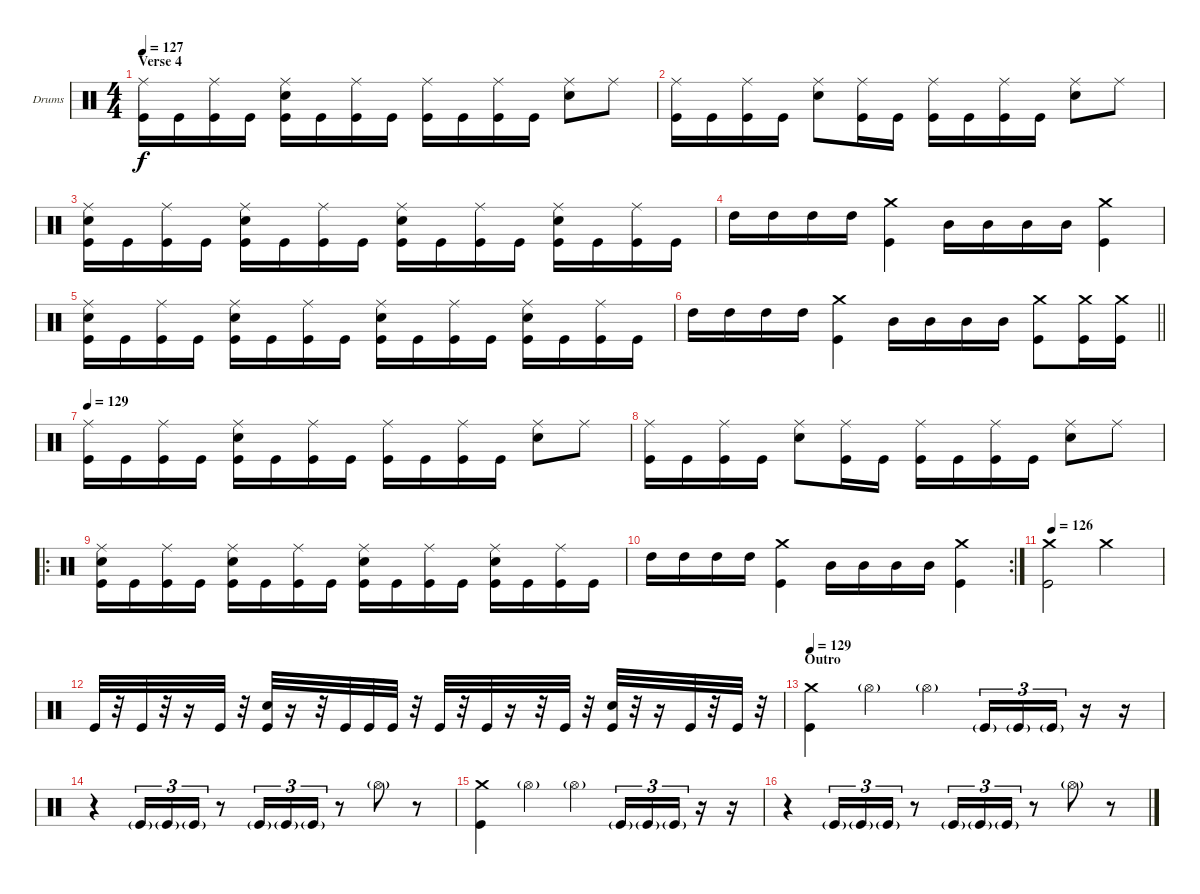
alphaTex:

\bracketExtendMode groupsimilarinstruments
\firstSystemTrackNameOrientation horizontal
\otherSystemsTrackNameOrientation horizontal
\track ("Drumkit" "Drums") {instrument percussion}
\staff {score}
\articulation defaults
\ts (4 4)
\section ("" "Verse 4")
\tempo 127
\clef neutral
\ks c
("Ride (middle)" "Kick (hit)").16{dy f} "Kick (hit)".16 ("Ride (middle)" "Kick (hit)").16 "Kick (hit)".16 ("Ride (middle)" "Snare (hit) 2" "Kick (hit)").16 "Kick (hit)".16 ("Ride (middle)" "Kick (hit)").16 "Kick (hit)".16 ("Ride (middle)" "Kick (hit)").16 "Kick (hit)".16 ("Ride (middle)" "Kick (hit)").16 "Kick (hit)".16 ("Ride (middle)" "Snare (hit) 2").8 "Ride (middle)".8 |
("Ride (middle)" "Kick (hit)").16 "Kick (hit)".16 ("Ride (middle)" "Kick (hit)").16 "Kick (hit)".16 ("Ride (middle)" "Snare (hit) 2").8 ("Ride (middle)" "Kick (hit)").16 "Kick (hit)".16 ("Ride (middle)" "Kick (hit)").16 "Kick (hit)".16 ("Ride (middle)" "Kick (hit)").16 "Kick (hit)".16 ("Ride (middle)" "Snare (hit) 2").8 "Ride (middle)".8 |
("Ride (middle)" "Snare (hit) 2" "Kick (hit)").16 "Kick (hit)".16 ("Ride (middle)" "Kick (hit)").16 "Kick (hit)".16 ("Ride (middle)" "Snare (hit) 2" "Kick (hit)").16 "Kick (hit)".16 ("Ride (middle)" "Kick (hit)").16 "Kick (hit)".16 ("Ride (middle)" "Snare (hit) 2" "Kick (hit)").16 "Kick (hit)".16 ("Ride (middle)" "Kick (hit)").16 "Kick (hit)".16 ("Ride (middle)" "Snare (hit) 2" "Kick (hit)").16 "Kick (hit)".16 ("Ride (middle)" "Kick (hit)").16 "Kick (hit)".16 |
"High Tom (hit)".16 "High Tom (hit)".16 "High Tom (hit)".16 "High Tom (hit)".16 ("Crash medium (hit)" "Kick (hit)").4 "Mid Tom (hit)".16 "Mid Tom (hit)".16 "Mid Tom (hit)".16 "Mid Tom (hit)".16 ("Crash medium (hit)" "Kick (hit)").4 |
("Ride (middle)" "Snare (hit) 2" "Kick (hit)").16 "Kick (hit)".16 ("Ride (middle)" "Kick (hit)").16 "Kick (hit)".16 ("Ride (middle)" "Snare (hit) 2" "Kick (hit)").16 "Kick (hit)".16 ("Ride (middle)" "Kick (hit)").16 "Kick (hit)".16 ("Ride (middle)" "Snare (hit) 2" "Kick (hit)").16 "Kick (hit)".16 ("Ride (middle)" "Kick (hit)").16 "Kick (hit)".16 ("Ride (middle)" "Snare (hit) 2" "Kick (hit)").16 "Kick (hit)".16 ("Ride (middle)" "Kick (hit)").16 "Kick (hit)".16 |
\barLineRight lightlight "High Tom (hit)".16 "High Tom (hit)".16 "High Tom (hit)".16 "High Tom (hit)".16
("Crash medium (hit)" "Kick (hit)").4 "Mid Tom (hit)".16 "Mid Tom (hit)".16 "Mid Tom (hit)".16 "Mid Tom (hit)".16 ("Crash medium (hit)" "Kick (hit)").8 ("Crash medium (hit)" "Kick (hit)").16 ("Crash medium (hit)" "Kick (hit)").16 |
\tempo 129
("Ride (middle)" "Kick (hit)").16 "Kick (hit)".16 ("Ride (middle)" "Kick (hit)").16 "Kick (hit)".16 ("Ride (middle)" "Snare (hit) 2" "Kick (hit)").16 "Kick (hit)".16 ("Ride (middle)" "Kick (hit)").16 "Kick (hit)".16 ("Ride (middle)" "Kick (hit)").16 "Kick (hit)".16 ("Ride (middle)" "Kick (hit)").16 "Kick (hit)".16 ("Ride (middle)" "Snare (hit) 2").8 "Ride (middle)".8 |
("Ride (middle)" "Kick (hit)").16 "Kick (hit)".16 ("Ride (middle)" "Kick (hit)").16 "Kick (hit)".16 ("Ride (middle)" "Snare (hit) 2").8 ("Ride (middle)" "Kick (hit)").16 "Kick (hit)".16 ("Ride (middle)" "Kick (hit)").16 "Kick (hit)".16 ("Ride (middle)" "Kick (hit)").16 "Kick (hit)".16 ("Ride (middle)" "Snare (hit) 2").8 "Ride (middle)".8 |
\ro
("Ride (middle)" "Snare (hit) 2" "Kick (hit)").16 "Kick (hit)".16 ("Ride (middle)" "Kick (hit)").16 "Kick (hit)".16 ("Ride (middle)" "Snare (hit) 2" "Kick (hit)").16 "Kick (hit)".16 ("Ride (middle)" "Kick (hit)").16 "Kick (hit)".16 ("Ride (middle)" "Snare (hit) 2" "Kick (hit)").16 "Kick (hit)".16 ("Ride (middle)" "Kick (hit)").16 "Kick (hit)".16 ("Ride (middle)" "Snare (hit) 2" "Kick (hit)").16 "Kick (hit)".16 ("Ride (middle)" "Kick (hit)").16 "Kick (hit)".16 |
\rc 2 "High Tom (hit)".16 "High Tom (hit)".16 "High Tom (hit)".16 "High Tom (hit)".16
("Crash medium (hit)" "Kick (hit)").4 "Mid Tom (hit)".16 "Mid Tom (hit)".16 "Mid Tom (hit)".16 "Mid Tom (hit)".16 ("Crash medium (hit)" "Kick (hit)").4 |
\tempo (126 0.03125)
("Crash medium (hit)" "Kick (hit)").2 "Crash medium (hit)".2 |
"Kick (hit)".32 r.32 "Kick (hit)".32 r.32 r.16 "Kick (hit)".32 r.32 ("Snare (hit) 2" "Kick (hit)").32 r.16 r.32 "Kick (hit)".32 "Kick (hit)".32 "Kick (hit)".32 r.32 "Kick (hit)".32 r.32 "Kick (hit)".32 r.16 r.32 "Kick (hit)".32 r.32 ("Snare (hit) 2" "Kick (hit)").32 r.32 r.16 "Kick (hit)".32 r.32 "Kick (hit)".32 r.32 |
\section ("" "Outro")
\tempo 129
("Crash medium (hit)" "Kick (hit)").4 "Hi-Hat (open)"{g}.4 "Hi-Hat (open)"{g}.4 "Kick (hit)"{g}.16{tu (3 2)} "Kick (hit)"{g}.16{tu (3 2)} "Kick (hit)"{g}.16{tu (3 2)} r.16 r.16 |
r.4 "Kick (hit)"{g}.16{tu (3 2)} "Kick (hit)"{g}.16{tu (3 2)} "Kick (hit)"{g}.16{tu (3 2)} r.8 "Kick (hit)"{g}.16{tu (3 2)} "Kick (hit)"{g}.16{tu (3 2)} "Kick (hit)"{g}.16{tu (3 2)} r.8 "Hi-Hat (open)"{g}.8 r.8 |
("Crash medium (hit)" "Kick (hit)").4 "Hi-Hat (open)"{g}.4 "Hi-Hat (open)"{g}.4 "Kick (hit)"{g}.16{tu (3 2)} "Kick (hit)"{g}.16{tu (3 2)} "Kick (hit)"{g}.16{tu (3 2)} r.16 r.16 |
r.4 "Kick (hit)"{g}.16{tu (3 2)} "Kick (hit)"{g}.16{tu (3 2)} "Kick (hit)"{g}.16{tu (3 2)} r.8 "Kick (hit)"{g}.16{tu (3 2)} "Kick (hit)"{g}.16{tu (3 2)} "Kick (hit)"{g}.16{tu (3 2)} r.8 "Hi-Hat (open)"{g}.8 r.8
